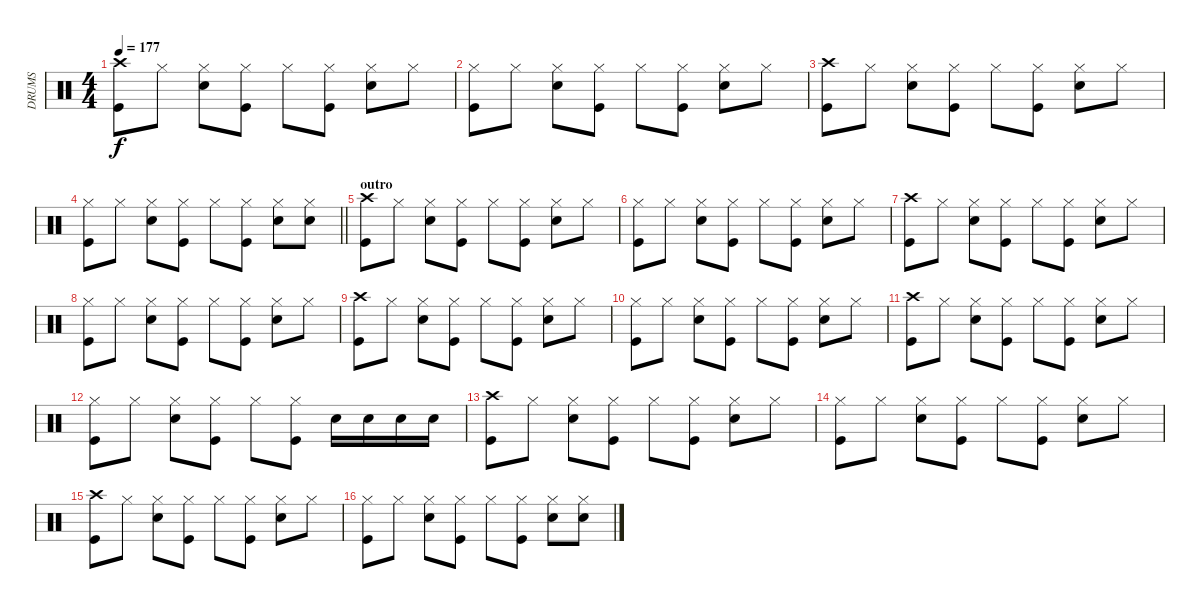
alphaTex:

\track ("DRUMS" "DRUMS") {instrument percussion}
\staff {score}
\articulation defaults
\ts (4 4)
\tempo 177
\clef neutral
\ks c
("Crash high (hit)" "Kick (hit)").8{dy f} "Hi-Hat (closed)".8 ("Hi-Hat (closed)" "Snare (hit) 2").8 ("Hi-Hat (closed)" "Kick (hit)").8 "Hi-Hat (closed)".8 ("Hi-Hat (closed)" "Kick (hit)").8 ("Hi-Hat (closed)" "Snare (hit) 2").8 "Hi-Hat (closed)".8 |
("Hi-Hat (closed)" "Kick (hit)").8 "Hi-Hat (closed)".8 ("Hi-Hat (closed)" "Snare (hit) 2").8 ("Hi-Hat (closed)" "Kick (hit)").8 "Hi-Hat (closed)".8 ("Hi-Hat (closed)" "Kick (hit)").8 ("Hi-Hat (closed)" "Snare (hit) 2").8 "Hi-Hat (closed)".8 |
("Crash high (hit)" "Kick (hit)").8 "Hi-Hat (closed)".8 ("Hi-Hat (closed)" "Snare (hit) 2").8 ("Hi-Hat (closed)" "Kick (hit)").8 "Hi-Hat (closed)".8 ("Hi-Hat (closed)" "Kick (hit)").8 ("Hi-Hat (closed)" "Snare (hit) 2").8 "Hi-Hat (closed)".8 |
\barLineRight lightlight
("Hi-Hat (closed)" "Kick (hit)").8 "Hi-Hat (closed)".8 ("Hi-Hat (closed)" "Snare (hit) 2").8 ("Hi-Hat (closed)" "Kick (hit)").8 "Hi-Hat (closed)".8 ("Hi-Hat (closed)" "Kick (hit)").8 ("Hi-Hat (closed)" "Snare (hit) 2").8 ("Hi-Hat (closed)" "Snare (hit) 2").8 |
\section ("" "outro")
("Crash high (hit)" "Kick (hit)").8 "Hi-Hat (closed)".8 ("Hi-Hat (closed)" "Snare (hit) 2").8 ("Hi-Hat (closed)" "Kick (hit)").8 "Hi-Hat (closed)".8 ("Hi-Hat (closed)" "Kick (hit)").8 ("Hi-Hat (closed)" "Snare (hit) 2").8 "Hi-Hat (closed)".8 |
("Hi-Hat (closed)" "Kick (hit)").8 "Hi-Hat (closed)".8 ("Hi-Hat (closed)" "Snare (hit) 2").8 ("Hi-Hat (closed)" "Kick (hit)").8 "Hi-Hat (closed)".8 ("Hi-Hat (closed)" "Kick (hit)").8 ("Hi-Hat (closed)" "Snare (hit) 2").8 "Hi-Hat (closed)".8 |
("Crash high (hit)" "Kick (hit)").8 "Hi-Hat (closed)".8 ("Hi-Hat (closed)" "Snare (hit) 2").8 ("Hi-Hat (closed)" "Kick (hit)").8 "Hi-Hat (closed)".8 ("Hi-Hat (closed)" "Kick (hit)").8 ("Hi-Hat (closed)" "Snare (hit) 2").8 "Hi-Hat (closed)".8 |
("Hi-Hat (closed)" "Kick (hit)").8 "Hi-Hat (closed)".8 ("Hi-Hat (closed)" "Snare (hit) 2").8 ("Hi-Hat (closed)" "Kick (hit)").8 "Hi-Hat (closed)".8 ("Hi-Hat (closed)" "Kick (hit)").8 ("Hi-Hat (closed)" "Snare (hit) 2").8 "Hi-Hat (closed)".8 |
("Crash high (hit)" "Kick (hit)").8 "Hi-Hat (closed)".8 ("Hi-Hat (closed)" "Snare (hit) 2").8 ("Hi-Hat (closed)" "Kick (hit)").8 "Hi-Hat (closed)".8 ("Hi-Hat (closed)" "Kick (hit)").8 ("Hi-Hat (closed)" "Snare (hit) 2").8 "Hi-Hat (closed)".8 |
("Hi-Hat (closed)" "Kick (hit)").8 "Hi-Hat (closed)".8 ("Hi-Hat (closed)" "Snare (hit) 2").8 ("Hi-Hat (closed)" "Kick (hit)").8 "Hi-Hat (closed)".8 ("Hi-Hat (closed)" "Kick (hit)").8 ("Hi-Hat (closed)" "Snare (hit) 2").8 "Hi-Hat (closed)".8 |
("Crash high (hit)" "Kick (hit)").8 "Hi-Hat (closed)".8 ("Hi-Hat (closed)" "Snare (hit) 2").8 ("Hi-Hat (closed)" "Kick (hit)").8 "Hi-Hat (closed)".8 ("Hi-Hat (closed)" "Kick (hit)").8 ("Hi-Hat (closed)" "Snare (hit) 2").8 "Hi-Hat (closed)".8 |
("Hi-Hat (closed)" "Kick (hit)").8 "Hi-Hat (closed)".8 ("Hi-Hat (closed)" "Snare (hit) 2").8 ("Hi-Hat (closed)" "Kick (hit)").8 "Hi-Hat (closed)".8 ("Hi-Hat (closed)" "Kick (hit)").8 "Snare (hit) 2".16 "Snare (hit) 2".16 "Snare (hit) 2".16 "Snare (hit) 2".16 |
("Crash high (hit)" "Kick (hit)").8 "Hi-Hat (closed)".8 ("Hi-Hat (closed)" "Snare (hit) 2").8 ("Hi-Hat (closed)" "Kick (hit)").8 "Hi-Hat (closed)".8 ("Hi-Hat (closed)" "Kick (hit)").8 ("Hi-Hat (closed)" "Snare (hit) 2").8 "Hi-Hat (closed)".8 |
("Hi-Hat (closed)" "Kick (hit)").8 "Hi-Hat (closed)".8 ("Hi-Hat (closed)" "Snare (hit) 2").8 ("Hi-Hat (closed)" "Kick (hit)").8 "Hi-Hat (closed)".8 ("Hi-Hat (closed)" "Kick (hit)").8 ("Hi-Hat (closed)" "Snare (hit) 2").8 "Hi-Hat (closed)".8 |
("Crash high (hit)" "Kick (hit)").8 "Hi-Hat (closed)".8 ("Hi-Hat (closed)" "Snare (hit) 2").8 ("Hi-Hat (closed)" "Kick (hit)").8 "Hi-Hat (closed)".8 ("Hi-Hat (closed)" "Kick (hit)").8 ("Hi-Hat (closed)" "Snare (hit) 2").8 "Hi-Hat (closed)".8 |
("Hi-Hat (closed)" "Kick (hit)").8 "Hi-Hat (closed)".8 ("Hi-Hat (closed)" "Snare (hit) 2").8 ("Hi-Hat (closed)" "Kick (hit)").8 "Hi-Hat (closed)".8 ("Hi-Hat (closed)" "Kick (hit)").8 ("Hi-Hat (closed)" "Snare (hit) 2").8 ("Hi-Hat (closed)" "Snare (hit) 2").8
